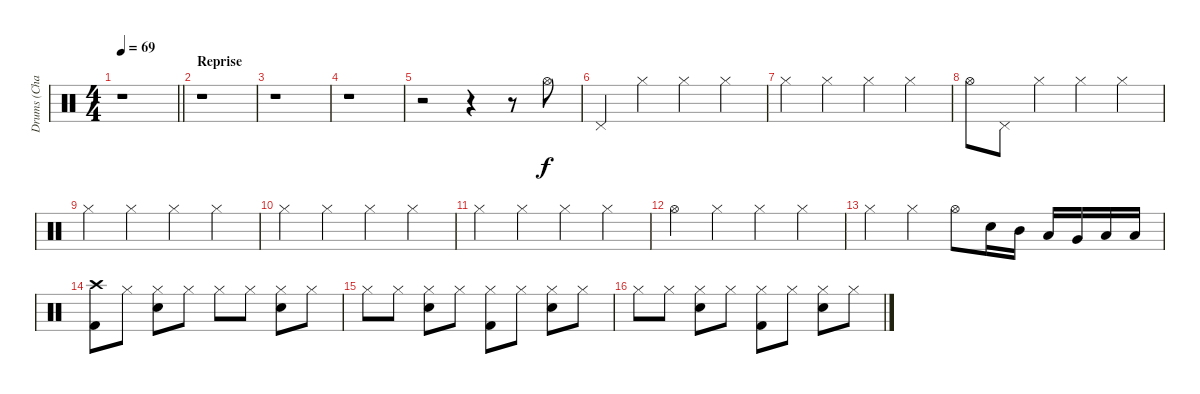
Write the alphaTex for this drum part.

\track ("Drums (Charlie)" "Drums (Cha") {instrument percussion}
\staff {score}
\articulation defaults
\ts (4 4)
\tempo 69
\clef neutral
\barLineRight lightlight
\ks c
r.1{dy f} |
\section ("" "Reprise")
r.1 |
r.1 |
r.1 |
r.2 r.4 r.8 "Hi-Hat (open)".8{volume 9} |
"Pedal Hi-Hat (hit)".4 "Hi-Hat (closed)".4 "Hi-Hat (closed)".4 "Hi-Hat (closed)".4 |
"Hi-Hat (closed)".4 "Hi-Hat (closed)".4 "Hi-Hat (closed)".4 "Hi-Hat (closed)".4 |
"Hi-Hat (open)".8 "Pedal Hi-Hat (hit)".8 "Hi-Hat (closed)".4 "Hi-Hat (closed)".4 "Hi-Hat (closed)".4 |
"Hi-Hat (closed)".4 "Hi-Hat (closed)".4 "Hi-Hat (closed)".4 "Hi-Hat (closed)".4 |
"Hi-Hat (closed)".4 "Hi-Hat (closed)".4 "Hi-Hat (closed)".4 "Hi-Hat (closed)".4 |
"Hi-Hat (closed)".4 "Hi-Hat (closed)".4 "Hi-Hat (closed)".4 "Hi-Hat (closed)".4 |
"Hi-Hat (open)".4 "Hi-Hat (closed)".4 "Hi-Hat (closed)".4 "Hi-Hat (closed)".4 |
"Hi-Hat (closed)".4 "Hi-Hat (closed)".4 "Hi-Hat (open)".8 "Snare (hit) 2".16 "Mid Tom (hit)".16 "Low Tom (hit)".16 "Very Low Tom (hit)".16 "Low Floor Tom (hit)".16 "Low Floor Tom (hit)".16 |
("Crash high (hit)" "Kick (hit) 2").8 "Hi-Hat (closed)".8 ("Hi-Hat (closed)" "Snare (hit) 2").8 "Hi-Hat (closed)".8 "Hi-Hat (closed)".8 "Hi-Hat (closed)".8 ("Hi-Hat (closed)" "Snare (hit) 2").8 "Hi-Hat (closed)".8 |
"Hi-Hat (closed)".8 "Hi-Hat (closed)".8 ("Hi-Hat (closed)" "Snare (hit) 2").8 "Hi-Hat (closed)".8 ("Hi-Hat (closed)" "Kick (hit) 2").8 "Hi-Hat (closed)".8 ("Hi-Hat (closed)" "Snare (hit) 2").8 "Hi-Hat (closed)".8 |
"Hi-Hat (closed)".8 "Hi-Hat (closed)".8 ("Hi-Hat (closed)" "Snare (hit) 2").8 "Hi-Hat (closed)".8 ("Hi-Hat (closed)" "Kick (hit) 2").8 "Hi-Hat (closed)".8 ("Hi-Hat (closed)" "Snare (hit) 2").8 "Hi-Hat (closed)".8
